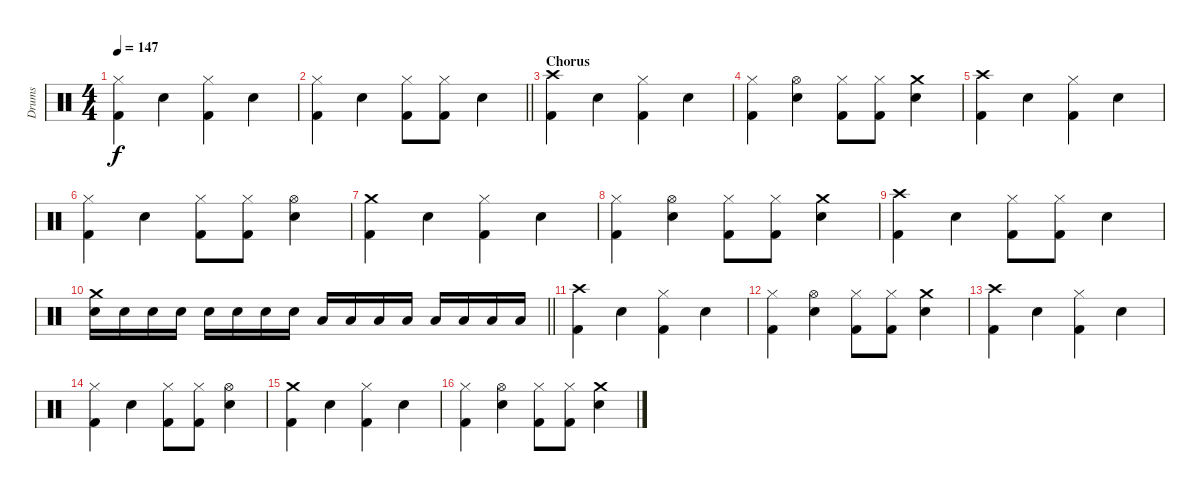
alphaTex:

\track ("Drums" "Drums") {instrument percussion}
\staff {score}
\articulation defaults
\ts (4 4)
\tempo 147
\clef neutral
\ks c
("Hi-Hat (closed)" "Kick (hit) 2").4{dy f} "Electric Snare (hit)".4 ("Hi-Hat (closed)" "Kick (hit) 2").4 "Electric Snare (hit)".4 |
\barLineRight lightlight
("Hi-Hat (closed)" "Kick (hit) 2").4 "Electric Snare (hit)".4 ("Hi-Hat (closed)" "Kick (hit) 2").8 ("Hi-Hat (closed)" "Kick (hit) 2").8 "Electric Snare (hit)".4 |
\section ("" "Chorus")
("Crash high (hit)" "Kick (hit) 2").4 "Electric Snare (hit)".4 ("Hi-Hat (closed)" "Kick (hit) 2").4 "Electric Snare (hit)".4 |
("Hi-Hat (closed)" "Kick (hit) 2").4 ("Hi-Hat (open)" "Electric Snare (hit)").4 ("Hi-Hat (closed)" "Kick (hit) 2").8 ("Hi-Hat (closed)" "Kick (hit) 2").8 ("Crash medium (hit)" "Electric Snare (hit)").4 |
("Crash high (hit)" "Kick (hit) 2").4 "Electric Snare (hit)".4 ("Hi-Hat (closed)" "Kick (hit) 2").4 "Electric Snare (hit)".4 |
("Hi-Hat (closed)" "Kick (hit) 2").4 "Electric Snare (hit)".4 ("Hi-Hat (closed)" "Kick (hit) 2").8 ("Hi-Hat (closed)" "Kick (hit) 2").8 ("Hi-Hat (open)" "Electric Snare (hit)").4 |
("Crash medium (hit)" "Kick (hit) 2").4 "Electric Snare (hit)".4 ("Hi-Hat (closed)" "Kick (hit) 2").4 "Electric Snare (hit)".4 |
("Hi-Hat (closed)" "Kick (hit) 2").4 ("Hi-Hat (open)" "Electric Snare (hit)").4 ("Hi-Hat (closed)" "Kick (hit) 2").8 ("Hi-Hat (closed)" "Kick (hit) 2").8 ("Crash medium (hit)" "Electric Snare (hit)").4 |
("Crash high (hit)" "Kick (hit) 2").4 "Electric Snare (hit)".4 ("Hi-Hat (closed)" "Kick (hit) 2").8 ("Hi-Hat (closed)" "Kick (hit) 2").8 "Electric Snare (hit)".4 |
\barLineRight lightlight
("Crash medium (hit)" "Snare (hit) 2").16 "Snare (hit) 2".16 "Snare (hit) 2".16 "Snare (hit) 2".16 "Snare (hit) 2".16 "Snare (hit) 2".16 "Snare (hit) 2".16 "Snare (hit) 2".16 "Low Floor Tom (hit)".16 "Low Floor Tom (hit)".16 "Low Floor Tom (hit)".16 "Low Floor Tom (hit)".16 "Low Tom (hit)".16 "Low Tom (hit)".16 "Low Tom (hit)".16 "Low Tom (hit)".16 |
("Crash high (hit)" "Kick (hit) 2").4 "Electric Snare (hit)".4 ("Hi-Hat (closed)" "Kick (hit) 2").4 "Electric Snare (hit)".4 |
("Hi-Hat (closed)" "Kick (hit) 2").4 ("Hi-Hat (open)" "Electric Snare (hit)").4 ("Hi-Hat (closed)" "Kick (hit) 2").8 ("Hi-Hat (closed)" "Kick (hit) 2").8 ("Crash medium (hit)" "Electric Snare (hit)").4 |
("Crash high (hit)" "Kick (hit) 2").4 "Electric Snare (hit)".4 ("Hi-Hat (closed)" "Kick (hit) 2").4 "Electric Snare (hit)".4 |
("Hi-Hat (closed)" "Kick (hit) 2").4 "Electric Snare (hit)".4 ("Hi-Hat (closed)" "Kick (hit) 2").8 ("Hi-Hat (closed)" "Kick (hit) 2").8 ("Hi-Hat (open)" "Electric Snare (hit)").4 |
("Crash medium (hit)" "Kick (hit) 2").4 "Electric Snare (hit)".4 ("Hi-Hat (closed)" "Kick (hit) 2").4 "Electric Snare (hit)".4 |
("Hi-Hat (closed)" "Kick (hit) 2").4 ("Hi-Hat (open)" "Electric Snare (hit)").4 ("Hi-Hat (closed)" "Kick (hit) 2").8 ("Hi-Hat (closed)" "Kick (hit) 2").8 ("Crash medium (hit)" "Electric Snare (hit)").4
